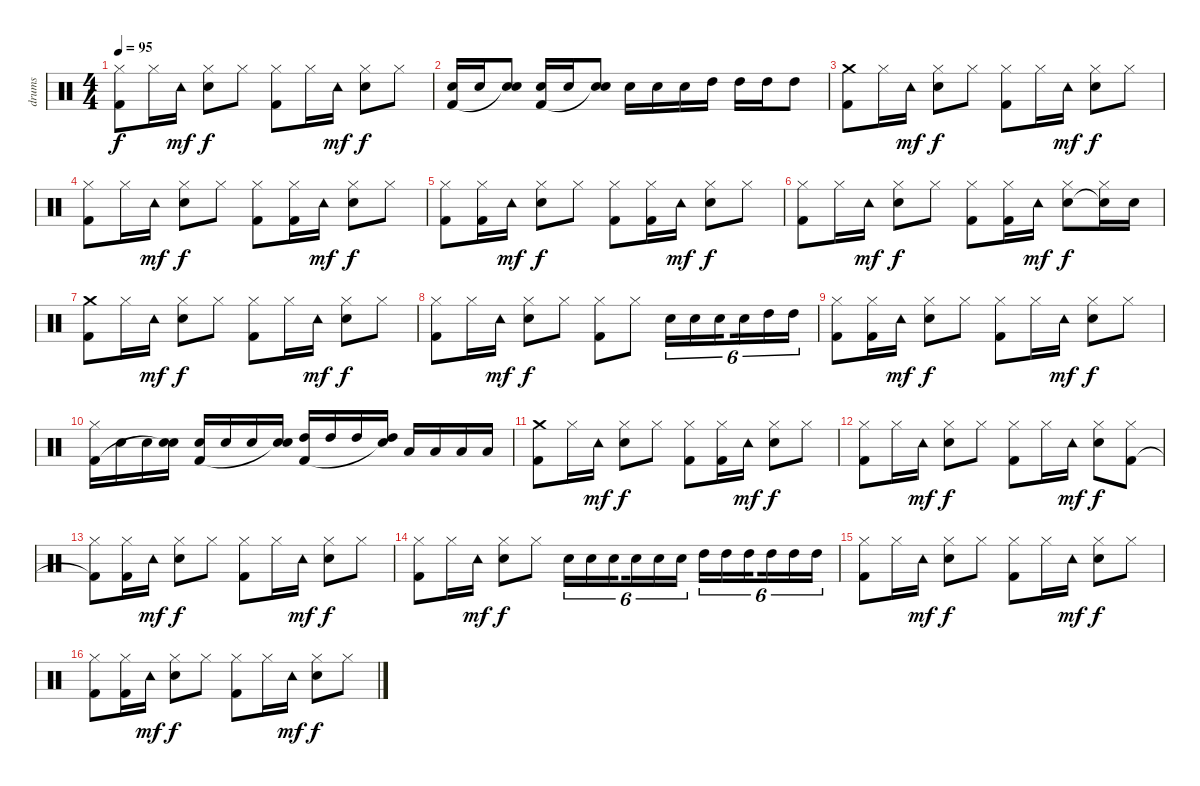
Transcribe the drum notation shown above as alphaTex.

\track ("drums" "drums") {instrument percussion}
\staff {score}
\articulation defaults
\ts (4 4)
\tempo 95
\clef neutral
\ks c
("Hi-Hat (closed)" "Kick (hit) 2").8{dy f} "Hi-Hat (closed)".16 "Tambourine (hit)".16{dy mf} ("Hi-Hat (closed)" "Snare (hit) 2").8{dy f} "Hi-Hat (closed)".8 ("Hi-Hat (closed)" "Kick (hit) 2").8 "Hi-Hat (closed)".16 "Tambourine (hit)".16{dy mf} ("Hi-Hat (closed)" "Snare (hit) 2").8{dy f} "Hi-Hat (closed)".8 |
("Snare (hit) 2" "Kick (hit) 2").16 "Snare (hit) 2".16 ("Snare (hit) 2" "Snare (hit)"{t}).8 ("Snare (hit) 2" "Kick (hit) 2").16 "Snare (hit) 2".16 ("Snare (hit) 2" "Snare (hit)"{t}).8 "Snare (hit) 2".16 "Snare (hit) 2".16 "Snare (hit) 2".16 "High Tom (hit)".16 "High Tom (hit)".16 "High Tom (hit)".16 "High Tom (hit)".8 |
("Crash medium (hit)" "Kick (hit) 2").8 "Hi-Hat (closed)".16 "Tambourine (hit)".16{dy mf} ("Hi-Hat (closed)" "Snare (hit) 2").8{dy f} "Hi-Hat (closed)".8 ("Hi-Hat (closed)" "Kick (hit) 2").8 "Hi-Hat (closed)".16 "Tambourine (hit)".16{dy mf} ("Hi-Hat (closed)" "Snare (hit) 2").8{dy f} "Hi-Hat (closed)".8 |
("Hi-Hat (closed)" "Kick (hit) 2").8 "Hi-Hat (closed)".16 "Tambourine (hit)".16{dy mf} ("Hi-Hat (closed)" "Snare (hit) 2").8{dy f} "Hi-Hat (closed)".8 ("Hi-Hat (closed)" "Kick (hit) 2").8 ("Hi-Hat (closed)" "Kick (hit) 2").16 "Tambourine (hit)".16{dy mf} ("Hi-Hat (closed)" "Snare (hit) 2").8{dy f} "Hi-Hat (closed)".8 |
("Hi-Hat (closed)" "Kick (hit) 2").8 ("Hi-Hat (closed)" "Kick (hit) 2").16 "Tambourine (hit)".16{dy mf} ("Hi-Hat (closed)" "Snare (hit) 2").8{dy f} "Hi-Hat (closed)".8 ("Hi-Hat (closed)" "Kick (hit) 2").8 ("Hi-Hat (closed)" "Kick (hit) 2").16 "Tambourine (hit)".16{dy mf} ("Hi-Hat (closed)" "Snare (hit) 2").8{dy f} "Hi-Hat (closed)".8 |
("Hi-Hat (closed)" "Kick (hit) 2").8 "Hi-Hat (closed)".16 "Tambourine (hit)".16{dy mf} ("Hi-Hat (closed)" "Snare (hit) 2").8{dy f} "Hi-Hat (closed)".8 ("Hi-Hat (closed)" "Kick (hit) 2").8 ("Hi-Hat (closed)" "Kick (hit) 2").16 "Tambourine (hit)".16{dy mf} ("Hi-Hat (closed)" "Snare (hit) 2").8{dy f} ("Hi-Hat (closed)" "Snare (hit)"{t}).16 "Snare (hit) 2".16 |
("Crash medium (hit)" "Kick (hit) 2").8 "Hi-Hat (closed)".16 "Tambourine (hit)".16{dy mf} ("Hi-Hat (closed)" "Snare (hit) 2").8{dy f} "Hi-Hat (closed)".8 ("Hi-Hat (closed)" "Kick (hit) 2").8 "Hi-Hat (closed)".16 "Tambourine (hit)".16{dy mf} ("Hi-Hat (closed)" "Snare (hit) 2").8{dy f} "Hi-Hat (closed)".8 |
("Hi-Hat (closed)" "Kick (hit) 2").8 "Hi-Hat (closed)".16 "Tambourine (hit)".16{dy mf} ("Hi-Hat (closed)" "Snare (hit) 2").8{dy f} "Hi-Hat (closed)".8 ("Hi-Hat (closed)" "Kick (hit) 2").8 "Hi-Hat (closed)".8 "Snare (hit) 2".16{tu (6 4)} "Snare (hit) 2".16{tu (6 4)} "Snare (hit) 2".16{tu (6 4) beam splitsecondary} "Snare (hit) 2".16{tu (6 4)} "High Tom (hit)".16{tu (6 4)} "High Tom (hit)".16{tu (6 4)} |
("Hi-Hat (closed)" "Kick (hit) 2").8 ("Hi-Hat (closed)" "Kick (hit) 2").16 "Tambourine (hit)".16{dy mf} ("Hi-Hat (closed)" "Snare (hit) 2").8{dy f} "Hi-Hat (closed)".8 ("Hi-Hat (closed)" "Kick (hit) 2").8 "Hi-Hat (closed)".16 "Tambourine (hit)".16{dy mf} ("Hi-Hat (closed)" "Snare (hit) 2").8{dy f} "Hi-Hat (closed)".8 |
("Hi-Hat (closed)" "Kick (hit) 2").16 "Snare (hit) 2".16 "Snare (hit) 2".16 ("Snare (hit) 2" "Snare (hit)"{t}).16 ("Snare (hit) 2" "Kick (hit) 2").16 "Snare (hit) 2".16 "Snare (hit) 2".16 ("Snare (hit) 2" "Snare (hit)"{t}).16 ("High Tom (hit)" "Kick (hit) 2").16 "High Tom (hit)".16 "High Tom (hit)".16 ("High Tom (hit)" "Snare (hit)"{t}).16 "Low Tom (hit)".16 "Low Tom (hit)".16 "Low Tom (hit)".16 "Low Tom (hit)".16 |
("Crash medium (hit)" "Kick (hit) 2").8 "Hi-Hat (closed)".16 "Tambourine (hit)".16{dy mf} ("Hi-Hat (closed)" "Snare (hit) 2").8{dy f} "Hi-Hat (closed)".8 ("Hi-Hat (closed)" "Kick (hit) 2").8 ("Hi-Hat (closed)" "Kick (hit) 2").16 "Tambourine (hit)".16{dy mf} ("Hi-Hat (closed)" "Snare (hit) 2").8{dy f} "Hi-Hat (closed)".8 |
("Hi-Hat (closed)" "Kick (hit) 2").8 "Hi-Hat (closed)".16 "Tambourine (hit)".16{dy mf} ("Hi-Hat (closed)" "Snare (hit) 2").8{dy f} "Hi-Hat (closed)".8 ("Hi-Hat (closed)" "Kick (hit) 2").8 "Hi-Hat (closed)".16 "Tambourine (hit)".16{dy mf} ("Hi-Hat (closed)" "Snare (hit) 2").8{dy f} ("Hi-Hat (closed)" "Kick (hit) 2").8 |
("Hi-Hat (closed)" "Kick (hit) 2"{t}).8 ("Hi-Hat (closed)" "Kick (hit) 2").16 "Tambourine (hit)".16{dy mf} ("Hi-Hat (closed)" "Snare (hit) 2").8{dy f} "Hi-Hat (closed)".8 ("Hi-Hat (closed)" "Kick (hit) 2").8 "Hi-Hat (closed)".16 "Tambourine (hit)".16{dy mf} ("Hi-Hat (closed)" "Snare (hit) 2").8{dy f} "Hi-Hat (closed)".8 |
("Hi-Hat (closed)" "Kick (hit) 2").8 "Hi-Hat (closed)".16 "Tambourine (hit)".16{dy mf} ("Hi-Hat (closed)" "Snare (hit) 2").8{dy f} "Hi-Hat (closed)".8 "Snare (hit) 2".16{tu (6 4)} "Snare (hit) 2".16{tu (6 4)} "Snare (hit) 2".16{tu (6 4) beam splitsecondary} "Snare (hit) 2".16{tu (6 4)} "Snare (hit) 2".16{tu (6 4)} "Snare (hit) 2".16{tu (6 4)} "High Tom (hit)".16{tu (6 4)} "High Tom (hit)".16{tu (6 4)} "High Tom (hit)".16{tu (6 4) beam splitsecondary} "High Tom (hit)".16{tu (6 4)} "High Tom (hit)".16{tu (6 4)} "High Tom (hit)".16{tu (6 4)} |
("Hi-Hat (closed)" "Kick (hit) 2").8 "Hi-Hat (closed)".16 "Tambourine (hit)".16{dy mf} ("Hi-Hat (closed)" "Snare (hit) 2").8{dy f} "Hi-Hat (closed)".8 ("Hi-Hat (closed)" "Kick (hit) 2").8 "Hi-Hat (closed)".16 "Tambourine (hit)".16{dy mf} ("Hi-Hat (closed)" "Snare (hit) 2").8{dy f} "Hi-Hat (closed)".8 |
("Hi-Hat (closed)" "Kick (hit) 2").8 ("Hi-Hat (closed)" "Kick (hit) 2").16 "Tambourine (hit)".16{dy mf} ("Hi-Hat (closed)" "Snare (hit) 2").8{dy f} "Hi-Hat (closed)".8 ("Hi-Hat (closed)" "Kick (hit) 2").8 "Hi-Hat (closed)".16 "Tambourine (hit)".16{dy mf} ("Hi-Hat (closed)" "Snare (hit) 2").8{dy f} "Hi-Hat (closed)".8
